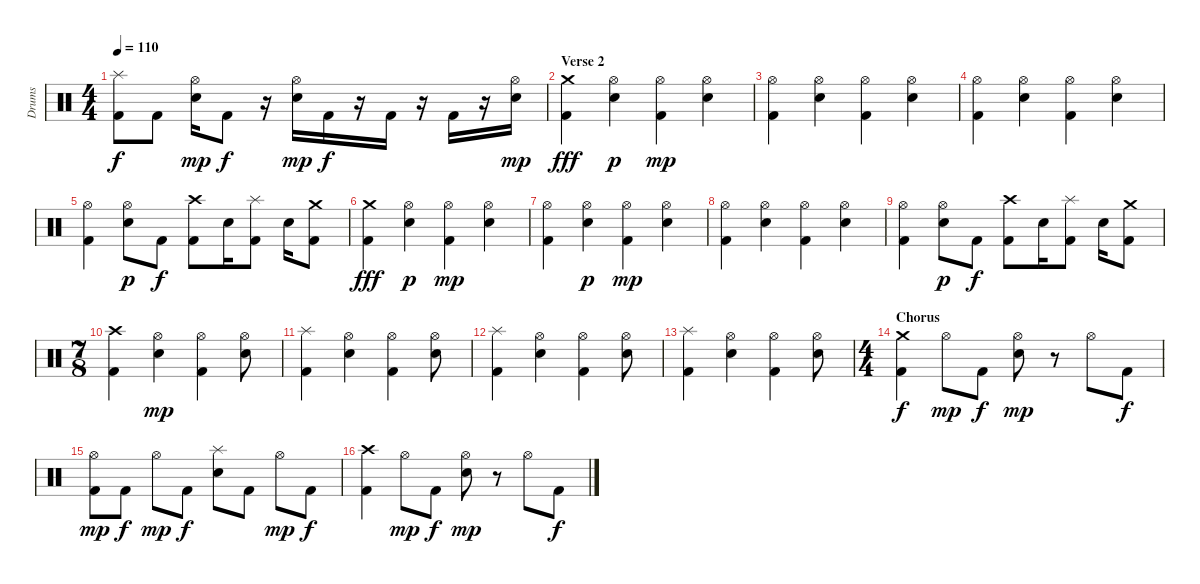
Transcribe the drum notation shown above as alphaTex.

\track ("Drums" "Drums") {instrument percussion}
\staff {score}
\articulation defaults
\ts (4 4)
\tempo 110
\clef neutral
\ks c
("Splash (hit)" "Kick (hit) 2").8{dy f} "Kick (hit) 2".8 ("Hi-Hat (open)" "Snare (hit) 2").16{dy mp} "Kick (hit) 2".8{dy f} r.16 ("Hi-Hat (open)" "Snare (hit) 2").16{dy mp} "Kick (hit) 2".16{dy f} r.16 "Kick (hit) 2".16 r.16 "Kick (hit) 2".16 r.16 ("Hi-Hat (open)" "Snare (hit) 2").16{dy mp} |
\section ("" "Verse 2")
("Crash medium (hit)" "Kick (hit) 2").4{dy fff} ("Hi-Hat (open)" "Snare (hit) 2").4{dy p} ("Hi-Hat (open)" "Kick (hit) 2").4{dy mp} ("Hi-Hat (open)" "Snare (hit) 2").4 |
("Hi-Hat (open)" "Kick (hit) 2").4 ("Hi-Hat (open)" "Snare (hit) 2").4 ("Hi-Hat (open)" "Kick (hit) 2").4 ("Hi-Hat (open)" "Snare (hit) 2").4 |
("Hi-Hat (open)" "Kick (hit) 2").4 ("Hi-Hat (open)" "Snare (hit) 2").4 ("Hi-Hat (open)" "Kick (hit) 2").4 ("Hi-Hat (open)" "Snare (hit) 2").4 |
("Hi-Hat (open)" "Kick (hit) 2").4 ("Hi-Hat (open)" "Snare (hit) 2").8{dy p} "Kick (hit) 2".8{dy f} ("Crash high (hit)" "Kick (hit) 2").8 "Snare (hit) 2".16 ("Splash (hit)" "Kick (hit) 2").8 "Snare (hit) 2".16 ("Crash medium (hit)" "Kick (hit) 2").8 |
("Crash medium (hit)" "Kick (hit) 2").4{dy fff} ("Hi-Hat (open)" "Snare (hit) 2").4{dy p} ("Hi-Hat (open)" "Kick (hit) 2").4{dy mp} ("Hi-Hat (open)" "Snare (hit) 2").4 |
("Hi-Hat (open)" "Kick (hit) 2").4 ("Hi-Hat (open)" "Snare (hit) 2").4{dy p} ("Hi-Hat (open)" "Kick (hit) 2").4{dy mp} ("Hi-Hat (open)" "Snare (hit) 2").4 |
("Hi-Hat (open)" "Kick (hit) 2").4 ("Hi-Hat (open)" "Snare (hit) 2").4 ("Hi-Hat (open)" "Kick (hit) 2").4 ("Hi-Hat (open)" "Snare (hit) 2").4 |
("Hi-Hat (open)" "Kick (hit) 2").4 ("Hi-Hat (open)" "Snare (hit) 2").8{dy p} "Kick (hit) 2".8{dy f} ("Crash high (hit)" "Kick (hit) 2").8 "Snare (hit) 2".16 ("Splash (hit)" "Kick (hit) 2").8 "Snare (hit) 2".16 ("Crash medium (hit)" "Kick (hit) 2").8 |
\ts (7 8)
("Crash high (hit)" "Kick (hit) 2").4 ("Hi-Hat (open)" "Snare (hit) 2").4{dy mp} ("Hi-Hat (open)" "Kick (hit) 2").4 ("Hi-Hat (open)" "Snare (hit) 2").8 |
("Splash (hit)" "Kick (hit) 2").4 ("Hi-Hat (open)" "Snare (hit) 2").4 ("Hi-Hat (open)" "Kick (hit) 2").4 ("Hi-Hat (open)" "Snare (hit) 2").8 |
("Splash (hit)" "Kick (hit) 2").4 ("Hi-Hat (open)" "Snare (hit) 2").4 ("Hi-Hat (open)" "Kick (hit) 2").4 ("Hi-Hat (open)" "Snare (hit) 2").8 |
("Splash (hit)" "Kick (hit) 2").4 ("Hi-Hat (open)" "Snare (hit) 2").4 ("Hi-Hat (open)" "Kick (hit) 2").4 ("Hi-Hat (open)" "Snare (hit) 2").8 |
\ts (4 4)
\section ("" "Chorus")
("Crash medium (hit)" "Kick (hit) 2").4{dy f} "Hi-Hat (open)".8{dy mp} "Kick (hit) 2".8{dy f} ("Hi-Hat (open)" "Snare (hit) 2").8{dy mp} r.8 "Hi-Hat (open)".8 "Kick (hit) 2".8{dy f} |
("Hi-Hat (open)" "Kick (hit) 2").8{dy mp} "Kick (hit) 2".8{dy f} "Hi-Hat (open)".8{dy mp} "Kick (hit) 2".8{dy f} ("Splash (hit)" "Snare (hit) 2").8 "Kick (hit) 2".8 "Hi-Hat (open)".8{dy mp} "Kick (hit) 2".8{dy f} |
("Crash high (hit)" "Kick (hit) 2").4 "Hi-Hat (open)".8{dy mp} "Kick (hit) 2".8{dy f} ("Hi-Hat (open)" "Snare (hit) 2").8{dy mp} r.8 "Hi-Hat (open)".8 "Kick (hit) 2".8{dy f}
